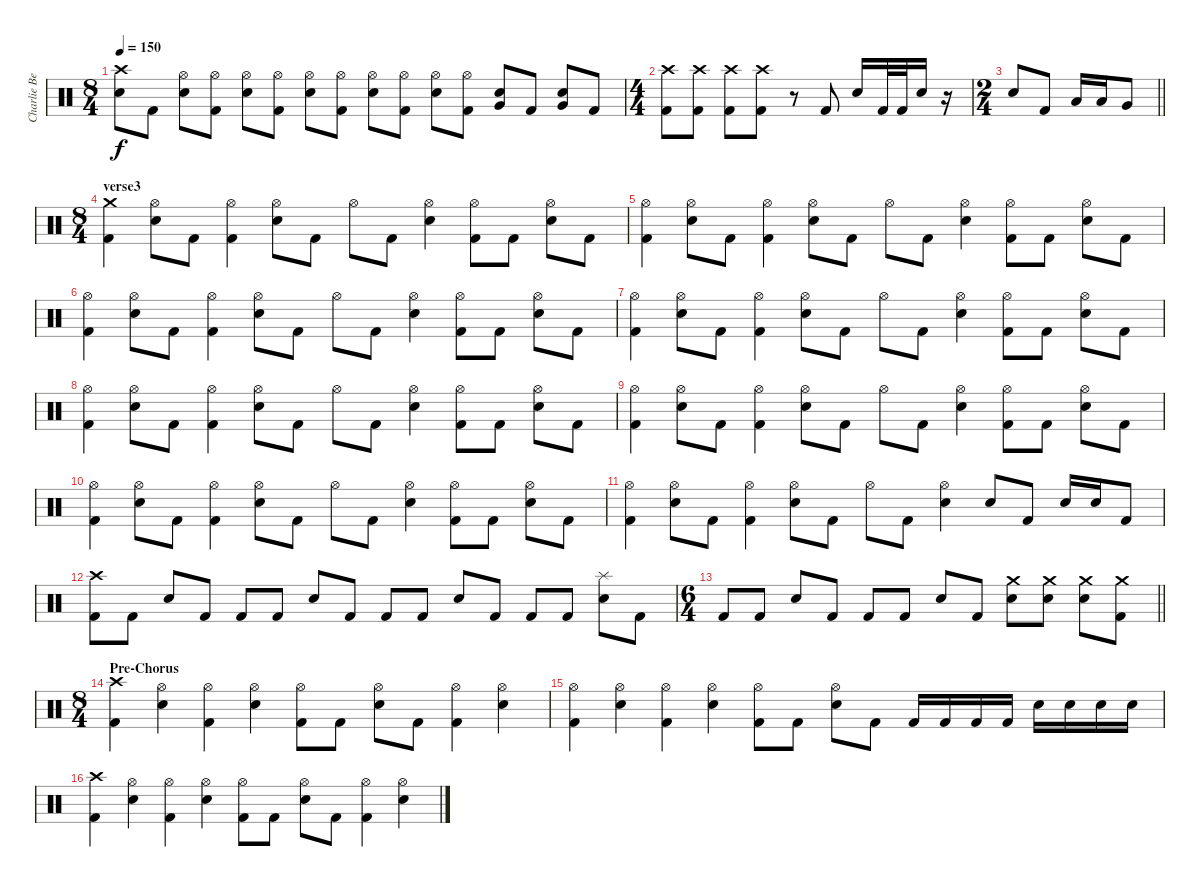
\track ("Charlie Benante" "Charlie Be") {instrument percussion}
\staff {score}
\articulation defaults
\ts (8 4)
\tempo 150
\clef neutral
\ks c
("Crash high (hit)" "Electric Snare (hit)").8{dy f} "Kick (hit) 2".8 ("Hi-Hat (open)" "Electric Snare (hit)").8 ("Hi-Hat (open)" "Kick (hit) 2").8 ("Hi-Hat (open)" "Electric Snare (hit)").8 ("Hi-Hat (open)" "Kick (hit) 2").8 ("Hi-Hat (open)" "Electric Snare (hit)").8 ("Hi-Hat (open)" "Kick (hit) 2").8 ("Hi-Hat (open)" "Electric Snare (hit)").8 ("Hi-Hat (open)" "Kick (hit) 2").8 ("Hi-Hat (open)" "Electric Snare (hit)").8 ("Hi-Hat (open)" "Kick (hit) 2").8 ("Very Low Tom (hit)" "Electric Snare (hit)").8 "Kick (hit) 2".8 ("Very Low Tom (hit)" "Electric Snare (hit)").8 "Kick (hit) 2".8 |
\ts (4 4)
("Crash high (hit)" "Kick (hit) 2").8 ("Crash high (hit)" "Kick (hit) 2").8 ("Crash high (hit)" "Kick (hit) 2").8 ("Crash high (hit)" "Kick (hit) 2").8 r.8 "Kick (hit) 2".8 "Electric Snare (hit)".16 "Kick (hit) 2".32 "Kick (hit) 2".32 "Electric Snare (hit)".16 r.16 |
\ts (2 4)
\barLineRight lightlight "Electric Snare (hit)".8 "Kick (hit) 2".8 "Low Tom (hit)".16 "Low Tom (hit)".16 "Very Low Tom (hit)".8
|
\ts (8 4)
\section ("" "verse3")
("Crash medium (hit)" "Kick (hit) 2").4 ("Hi-Hat (open)" "Electric Snare (hit)").8 "Kick (hit) 2".8 ("Hi-Hat (open)" "Kick (hit) 2").4 ("Hi-Hat (open)" "Electric Snare (hit)").8 "Kick (hit) 2".8 "Hi-Hat (open)".8 "Kick (hit) 2".8 ("Hi-Hat (open)" "Electric Snare (hit)").4 ("Hi-Hat (open)" "Kick (hit) 2").8 "Kick (hit) 2".8 ("Hi-Hat (open)" "Electric Snare (hit)").8 "Kick (hit) 2".8 |
("Hi-Hat (open)" "Kick (hit) 2").4 ("Hi-Hat (open)" "Electric Snare (hit)").8 "Kick (hit) 2".8 ("Hi-Hat (open)" "Kick (hit) 2").4 ("Hi-Hat (open)" "Electric Snare (hit)").8 "Kick (hit) 2".8 "Hi-Hat (open)".8 "Kick (hit) 2".8 ("Hi-Hat (open)" "Electric Snare (hit)").4 ("Hi-Hat (open)" "Kick (hit) 2").8 "Kick (hit) 2".8 ("Hi-Hat (open)" "Electric Snare (hit)").8 "Kick (hit) 2".8 |
("Hi-Hat (open)" "Kick (hit) 2").4 ("Hi-Hat (open)" "Electric Snare (hit)").8 "Kick (hit) 2".8 ("Hi-Hat (open)" "Kick (hit) 2").4 ("Hi-Hat (open)" "Electric Snare (hit)").8 "Kick (hit) 2".8 "Hi-Hat (open)".8 "Kick (hit) 2".8 ("Hi-Hat (open)" "Electric Snare (hit)").4 ("Hi-Hat (open)" "Kick (hit) 2").8 "Kick (hit) 2".8 ("Hi-Hat (open)" "Electric Snare (hit)").8 "Kick (hit) 2".8 |
("Hi-Hat (open)" "Kick (hit) 2").4 ("Hi-Hat (open)" "Electric Snare (hit)").8 "Kick (hit) 2".8 ("Hi-Hat (open)" "Kick (hit) 2").4 ("Hi-Hat (open)" "Electric Snare (hit)").8 "Kick (hit) 2".8 "Hi-Hat (open)".8 "Kick (hit) 2".8 ("Hi-Hat (open)" "Electric Snare (hit)").4 ("Hi-Hat (open)" "Kick (hit) 2").8 "Kick (hit) 2".8 ("Hi-Hat (open)" "Electric Snare (hit)").8 "Kick (hit) 2".8 |
("Hi-Hat (open)" "Kick (hit) 2").4 ("Hi-Hat (open)" "Electric Snare (hit)").8 "Kick (hit) 2".8 ("Hi-Hat (open)" "Kick (hit) 2").4 ("Hi-Hat (open)" "Electric Snare (hit)").8 "Kick (hit) 2".8 "Hi-Hat (open)".8 "Kick (hit) 2".8 ("Hi-Hat (open)" "Electric Snare (hit)").4 ("Hi-Hat (open)" "Kick (hit) 2").8 "Kick (hit) 2".8 ("Hi-Hat (open)" "Electric Snare (hit)").8 "Kick (hit) 2".8 |
("Hi-Hat (open)" "Kick (hit) 2").4 ("Hi-Hat (open)" "Electric Snare (hit)").8 "Kick (hit) 2".8 ("Hi-Hat (open)" "Kick (hit) 2").4 ("Hi-Hat (open)" "Electric Snare (hit)").8 "Kick (hit) 2".8 "Hi-Hat (open)".8 "Kick (hit) 2".8 ("Hi-Hat (open)" "Electric Snare (hit)").4 ("Hi-Hat (open)" "Kick (hit) 2").8 "Kick (hit) 2".8 ("Hi-Hat (open)" "Electric Snare (hit)").8 "Kick (hit) 2".8 |
("Hi-Hat (open)" "Kick (hit) 2").4 ("Hi-Hat (open)" "Electric Snare (hit)").8 "Kick (hit) 2".8 ("Hi-Hat (open)" "Kick (hit) 2").4 ("Hi-Hat (open)" "Electric Snare (hit)").8 "Kick (hit) 2".8 "Hi-Hat (open)".8 "Kick (hit) 2".8 ("Hi-Hat (open)" "Electric Snare (hit)").4 ("Hi-Hat (open)" "Kick (hit) 2").8 "Kick (hit) 2".8 ("Hi-Hat (open)" "Electric Snare (hit)").8 "Kick (hit) 2".8 |
("Hi-Hat (open)" "Kick (hit) 2").4 ("Hi-Hat (open)" "Electric Snare (hit)").8 "Kick (hit) 2".8 ("Hi-Hat (open)" "Kick (hit) 2").4 ("Hi-Hat (open)" "Electric Snare (hit)").8 "Kick (hit) 2".8 "Hi-Hat (open)".8 "Kick (hit) 2".8 ("Hi-Hat (open)" "Electric Snare (hit)").4 "Electric Snare (hit)".8 "Kick (hit) 2".8 "Electric Snare (hit)".16 "Electric Snare (hit)".16 "Kick (hit) 2".8 |
("Crash high (hit)" "Kick (hit) 2").8 "Kick (hit) 2".8 "Electric Snare (hit)".8 "Kick (hit) 2".8 "Kick (hit) 2".8 "Kick (hit) 2".8 "Electric Snare (hit)".8 "Kick (hit) 2".8 "Kick (hit) 2".8 "Kick (hit) 2".8 "Electric Snare (hit)".8 "Kick (hit) 2".8 "Kick (hit) 2".8 "Kick (hit) 2".8 ("Splash (hit)" "Electric Snare (hit)").8 "Kick (hit) 2".8 |
\ts (6 4)
\barLineRight lightlight "Kick (hit) 2".8 "Kick (hit) 2".8 "Electric Snare (hit)".8 "Kick (hit) 2".8 "Kick (hit) 2".8 "Kick (hit) 2".8 "Electric Snare (hit)".8 "Kick (hit) 2".8
("Crash medium (hit)" "Electric Snare (hit)").8 ("Crash medium (hit)" "Electric Snare (hit)").8 ("Crash medium (hit)" "Electric Snare (hit)").8 ("Crash medium (hit)" "Kick (hit) 2").8 |
\ts (8 4)
\section ("" "Pre-Chorus")
("Crash high (hit)" "Kick (hit) 2").4 ("Hi-Hat (open)" "Electric Snare (hit)").4 ("Hi-Hat (open)" "Kick (hit) 2").4 ("Hi-Hat (open)" "Electric Snare (hit)").4 ("Hi-Hat (open)" "Kick (hit) 2").8 "Kick (hit) 2".8 ("Hi-Hat (open)" "Electric Snare (hit)").8 "Kick (hit) 2".8 ("Hi-Hat (open)" "Kick (hit) 2").4 ("Hi-Hat (open)" "Electric Snare (hit)").4 |
("Hi-Hat (open)" "Kick (hit) 2").4 ("Hi-Hat (open)" "Electric Snare (hit)").4 ("Hi-Hat (open)" "Kick (hit) 2").4 ("Hi-Hat (open)" "Electric Snare (hit)").4 ("Hi-Hat (open)" "Kick (hit) 2").8 "Kick (hit) 2".8 ("Hi-Hat (open)" "Electric Snare (hit)").8 "Kick (hit) 2".8 "Kick (hit) 2".16 "Kick (hit) 2".16 "Kick (hit) 2".16 "Kick (hit) 2".16 "Electric Snare (hit)".16 "Electric Snare (hit)".16 "Electric Snare (hit)".16 "Electric Snare (hit)".16 |
("Crash high (hit)" "Kick (hit) 2").4 ("Hi-Hat (open)" "Electric Snare (hit)").4 ("Hi-Hat (open)" "Kick (hit) 2").4 ("Hi-Hat (open)" "Electric Snare (hit)").4 ("Hi-Hat (open)" "Kick (hit) 2").8 "Kick (hit) 2".8 ("Hi-Hat (open)" "Electric Snare (hit)").8 "Kick (hit) 2".8 ("Hi-Hat (open)" "Kick (hit) 2").4 ("Hi-Hat (open)" "Electric Snare (hit)").4
